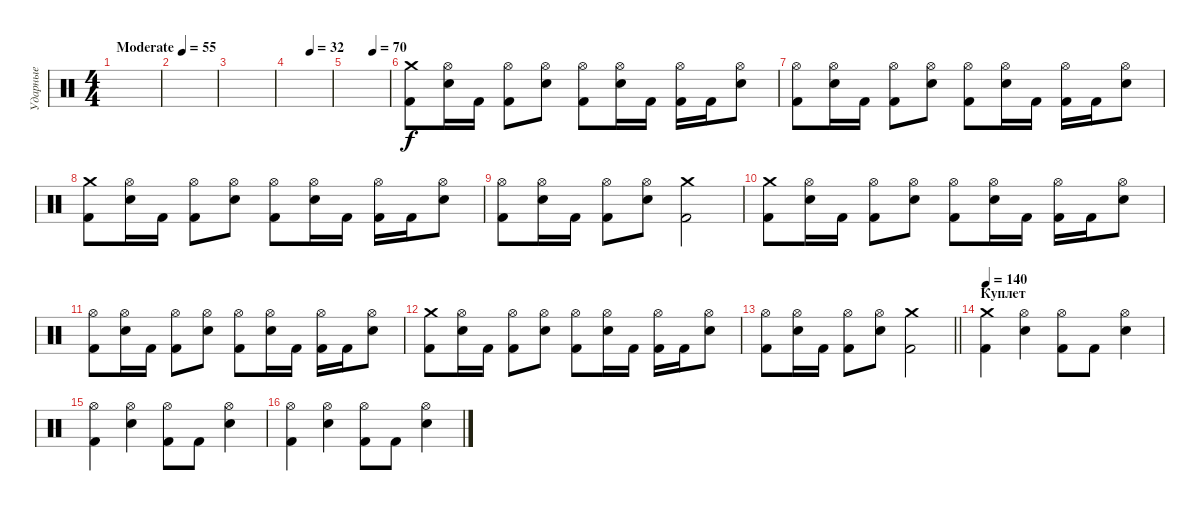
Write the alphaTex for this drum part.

\track ("Ударные" "Ударные") {instrument percussion}
\staff {score}
\articulation defaults
\ts (4 4)
\tempo (55 "Moderate")
\clef neutral
\ks c
|
|
|
\tempo (32 0.5)
|
\tempo (70 0.625)
|
("Kick (hit) 2" "Crash medium (hit)").8 ("Hi-Hat (open)" "Snare (hit) 2").16 "Kick (hit) 2".16 ("Hi-Hat (open)" "Kick (hit) 2").8 ("Snare (hit) 2" "Hi-Hat (open)").8 ("Hi-Hat (open)" "Kick (hit) 2").8 ("Hi-Hat (open)" "Snare (hit) 2").16 "Kick (hit) 2".16 ("Kick (hit) 2" "Hi-Hat (open)").16 "Kick (hit) 2".16 ("Snare (hit) 2" "Hi-Hat (open)").8 |
("Kick (hit) 2" "Hi-Hat (open)").8 ("Hi-Hat (open)" "Snare (hit) 2").16 "Kick (hit) 2".16 ("Hi-Hat (open)" "Kick (hit) 2").8 ("Snare (hit) 2" "Hi-Hat (open)").8 ("Hi-Hat (open)" "Kick (hit) 2").8 ("Hi-Hat (open)" "Snare (hit) 2").16 "Kick (hit) 2".16 ("Kick (hit) 2" "Hi-Hat (open)").16 "Kick (hit) 2".16 ("Snare (hit) 2" "Hi-Hat (open)").8 |
("Kick (hit) 2" "Crash medium (hit)").8 ("Hi-Hat (open)" "Snare (hit) 2").16 "Kick (hit) 2".16 ("Hi-Hat (open)" "Kick (hit) 2").8 ("Snare (hit) 2" "Hi-Hat (open)").8 ("Hi-Hat (open)" "Kick (hit) 2").8 ("Hi-Hat (open)" "Snare (hit) 2").16 "Kick (hit) 2".16 ("Kick (hit) 2" "Hi-Hat (open)").16 "Kick (hit) 2".16 ("Snare (hit) 2" "Hi-Hat (open)").8 |
("Kick (hit) 2" "Hi-Hat (open)").8 ("Hi-Hat (open)" "Snare (hit) 2").16 "Kick (hit) 2".16 ("Hi-Hat (open)" "Kick (hit) 2").8 ("Snare (hit) 2" "Hi-Hat (open)").8 ("Crash medium (hit)" "Kick (hit) 2").2 |
("Kick (hit) 2" "Crash medium (hit)").8 ("Hi-Hat (open)" "Snare (hit) 2").16 "Kick (hit) 2".16 ("Hi-Hat (open)" "Kick (hit) 2").8 ("Snare (hit) 2" "Hi-Hat (open)").8 ("Hi-Hat (open)" "Kick (hit) 2").8 ("Hi-Hat (open)" "Snare (hit) 2").16 "Kick (hit) 2".16 ("Kick (hit) 2" "Hi-Hat (open)").16 "Kick (hit) 2".16 ("Snare (hit) 2" "Hi-Hat (open)").8 |
("Kick (hit) 2" "Hi-Hat (open)").8 ("Hi-Hat (open)" "Snare (hit) 2").16 "Kick (hit) 2".16 ("Hi-Hat (open)" "Kick (hit) 2").8 ("Snare (hit) 2" "Hi-Hat (open)").8 ("Hi-Hat (open)" "Kick (hit) 2").8 ("Hi-Hat (open)" "Snare (hit) 2").16 "Kick (hit) 2".16 ("Kick (hit) 2" "Hi-Hat (open)").16 "Kick (hit) 2".16 ("Snare (hit) 2" "Hi-Hat (open)").8 |
("Kick (hit) 2" "Crash medium (hit)").8 ("Hi-Hat (open)" "Snare (hit) 2").16 "Kick (hit) 2".16 ("Hi-Hat (open)" "Kick (hit) 2").8 ("Snare (hit) 2" "Hi-Hat (open)").8 ("Hi-Hat (open)" "Kick (hit) 2").8 ("Hi-Hat (open)" "Snare (hit) 2").16 "Kick (hit) 2".16 ("Kick (hit) 2" "Hi-Hat (open)").16 "Kick (hit) 2".16 ("Snare (hit) 2" "Hi-Hat (open)").8 |
\barLineRight lightlight
("Kick (hit) 2" "Hi-Hat (open)").8 ("Hi-Hat (open)" "Snare (hit) 2").16 "Kick (hit) 2".16 ("Hi-Hat (open)" "Kick (hit) 2").8 ("Snare (hit) 2" "Hi-Hat (open)").8 ("Crash medium (hit)" "Kick (hit) 2").2 |
\section ("" "Куплет")
\tempo 140
("Crash medium (hit)" "Kick (hit) 2").4 ("Hi-Hat (open)" "Snare (hit) 2").4 ("Hi-Hat (open)" "Kick (hit) 2").8 "Kick (hit) 2".8 ("Snare (hit) 2" "Hi-Hat (open)").4 |
("Hi-Hat (open)" "Kick (hit) 2").4 ("Hi-Hat (open)" "Snare (hit) 2").4 ("Hi-Hat (open)" "Kick (hit) 2").8 "Kick (hit) 2".8 ("Snare (hit) 2" "Hi-Hat (open)").4 |
("Hi-Hat (open)" "Kick (hit) 2").4 ("Hi-Hat (open)" "Snare (hit) 2").4 ("Hi-Hat (open)" "Kick (hit) 2").8 "Kick (hit) 2".8 ("Snare (hit) 2" "Hi-Hat (open)").4
